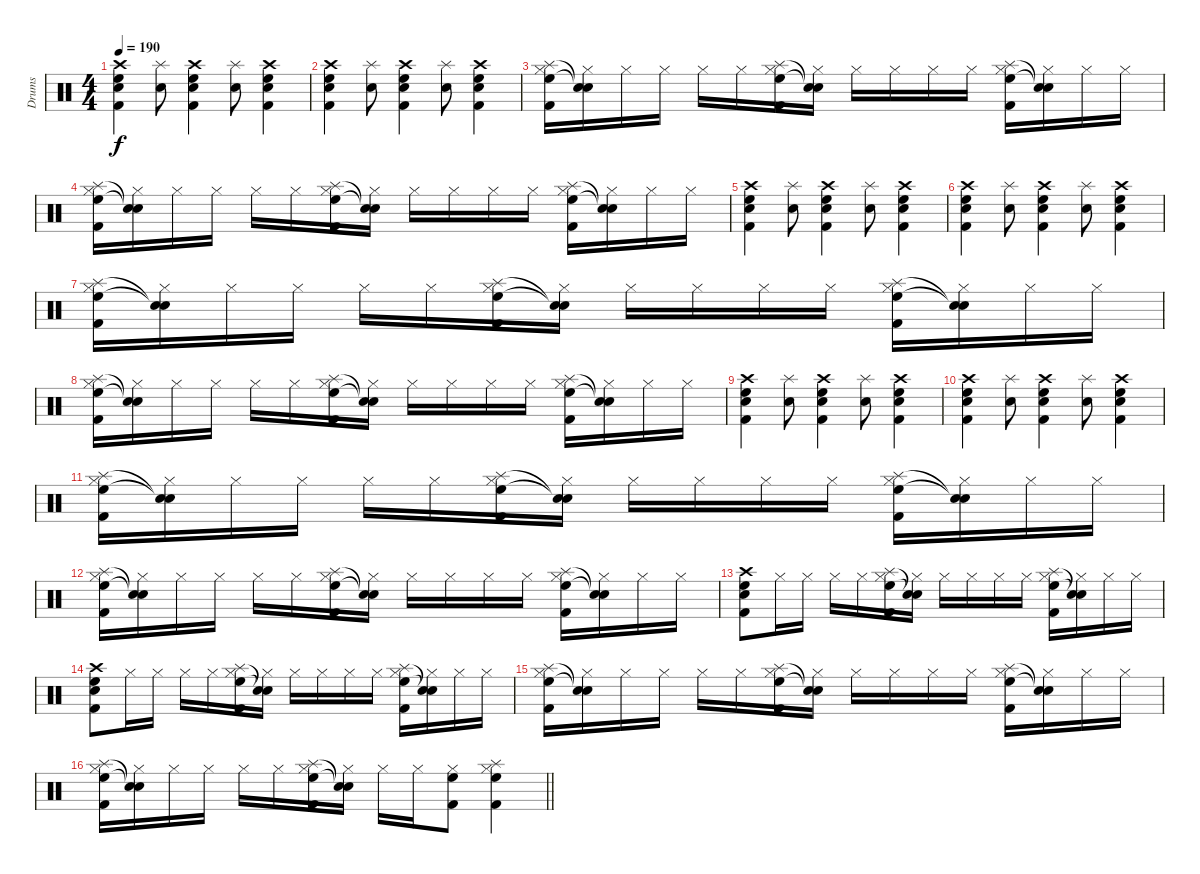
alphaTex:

\track ("Drums" "Drums") {instrument percussion}
\staff {score}
\articulation defaults
\ts (4 4)
\tempo 190
\clef neutral
\ks c
("Crash high (hit)" "High Floor Tom (hit)" "Snare (hit) 2" "Kick (hit) 2").4{dy f} ("Splash (hit)" "Electric Snare (hit)").8 ("Crash high (hit)" "High Floor Tom (hit)" "Snare (hit) 2" "Kick (hit) 2").4 ("Splash (hit)" "Electric Snare (hit)").8 ("Crash high (hit)" "High Floor Tom (hit)" "Snare (hit) 2" "Kick (hit) 2").4 |
("Crash high (hit)" "High Floor Tom (hit)" "Snare (hit) 2" "Kick (hit) 2").4 ("Splash (hit)" "Electric Snare (hit)").8 ("Crash high (hit)" "High Floor Tom (hit)" "Snare (hit) 2" "Kick (hit) 2").4 ("Splash (hit)" "Electric Snare (hit)").8 ("Crash high (hit)" "High Floor Tom (hit)" "Snare (hit) 2" "Kick (hit) 2").4 |
("Hi-Hat (closed)" "Splash (hit)" "High Floor Tom (hit)" "Kick (hit) 2").16 ("Hi-Hat (closed)" "Snare (hit)"{t} "Snare (hit)"{t}).16 "Hi-Hat (closed)".16 "Hi-Hat (closed)".16 "Hi-Hat (closed)".16 "Hi-Hat (closed)".16 ("Hi-Hat (closed)" "Splash (hit)" "High Floor Tom (hit)" "Kick (hit) 2").16 ("Hi-Hat (closed)" "Snare (hit)"{t} "Snare (hit)"{t}).16 "Hi-Hat (closed)".16 "Hi-Hat (closed)".16 "Hi-Hat (closed)".16 "Hi-Hat (closed)".16 ("Hi-Hat (closed)" "Splash (hit)" "High Floor Tom (hit)" "Kick (hit) 2").16 ("Hi-Hat (closed)" "Snare (hit)"{t} "Snare (hit)"{t}).16 "Hi-Hat (closed)".16 "Hi-Hat (closed)".16 |
("Hi-Hat (closed)" "Splash (hit)" "High Floor Tom (hit)" "Kick (hit) 2").16 ("Hi-Hat (closed)" "Snare (hit)"{t} "Snare (hit)"{t}).16 "Hi-Hat (closed)".16 "Hi-Hat (closed)".16 "Hi-Hat (closed)".16 "Hi-Hat (closed)".16 ("Hi-Hat (closed)" "Splash (hit)" "High Floor Tom (hit)" "Kick (hit) 2").16 ("Hi-Hat (closed)" "Snare (hit)"{t} "Snare (hit)"{t}).16 "Hi-Hat (closed)".16 "Hi-Hat (closed)".16 "Hi-Hat (closed)".16 "Hi-Hat (closed)".16 ("Hi-Hat (closed)" "Splash (hit)" "High Floor Tom (hit)" "Kick (hit) 2").16 ("Hi-Hat (closed)" "Snare (hit)"{t} "Snare (hit)"{t}).16 "Hi-Hat (closed)".16 "Hi-Hat (closed)".16 |
("Crash high (hit)" "High Floor Tom (hit)" "Snare (hit) 2" "Kick (hit) 2").4 ("Splash (hit)" "Electric Snare (hit)").8 ("Crash high (hit)" "High Floor Tom (hit)" "Snare (hit) 2" "Kick (hit) 2").4 ("Splash (hit)" "Electric Snare (hit)").8 ("Crash high (hit)" "High Floor Tom (hit)" "Snare (hit) 2" "Kick (hit) 2").4 |
("Crash high (hit)" "High Floor Tom (hit)" "Snare (hit) 2" "Kick (hit) 2").4 ("Splash (hit)" "Electric Snare (hit)").8 ("Crash high (hit)" "High Floor Tom (hit)" "Snare (hit) 2" "Kick (hit) 2").4 ("Splash (hit)" "Electric Snare (hit)").8 ("Crash high (hit)" "High Floor Tom (hit)" "Snare (hit) 2" "Kick (hit) 2").4 |
("Hi-Hat (closed)" "Splash (hit)" "High Floor Tom (hit)" "Kick (hit) 2").16 ("Hi-Hat (closed)" "Snare (hit)"{t} "Snare (hit)"{t}).16 "Hi-Hat (closed)".16 "Hi-Hat (closed)".16 "Hi-Hat (closed)".16 "Hi-Hat (closed)".16 ("Hi-Hat (closed)" "Splash (hit)" "High Floor Tom (hit)" "Kick (hit) 2").16 ("Hi-Hat (closed)" "Snare (hit)"{t} "Snare (hit)"{t}).16 "Hi-Hat (closed)".16 "Hi-Hat (closed)".16 "Hi-Hat (closed)".16 "Hi-Hat (closed)".16 ("Hi-Hat (closed)" "Splash (hit)" "High Floor Tom (hit)" "Kick (hit) 2").16 ("Hi-Hat (closed)" "Snare (hit)"{t} "Snare (hit)"{t}).16 "Hi-Hat (closed)".16 "Hi-Hat (closed)".16 |
("Hi-Hat (closed)" "Splash (hit)" "High Floor Tom (hit)" "Kick (hit) 2").16 ("Hi-Hat (closed)" "Snare (hit)"{t} "Snare (hit)"{t}).16 "Hi-Hat (closed)".16 "Hi-Hat (closed)".16 "Hi-Hat (closed)".16 "Hi-Hat (closed)".16 ("Hi-Hat (closed)" "Splash (hit)" "High Floor Tom (hit)" "Kick (hit) 2").16 ("Hi-Hat (closed)" "Snare (hit)"{t} "Snare (hit)"{t}).16 "Hi-Hat (closed)".16 "Hi-Hat (closed)".16 "Hi-Hat (closed)".16 "Hi-Hat (closed)".16 ("Hi-Hat (closed)" "Splash (hit)" "High Floor Tom (hit)" "Kick (hit) 2").16 ("Hi-Hat (closed)" "Snare (hit)"{t} "Snare (hit)"{t}).16 "Hi-Hat (closed)".16 "Hi-Hat (closed)".16 |
("Crash high (hit)" "High Floor Tom (hit)" "Snare (hit) 2" "Kick (hit) 2").4 ("Splash (hit)" "Electric Snare (hit)").8 ("Crash high (hit)" "High Floor Tom (hit)" "Snare (hit) 2" "Kick (hit) 2").4 ("Splash (hit)" "Electric Snare (hit)").8 ("Crash high (hit)" "High Floor Tom (hit)" "Snare (hit) 2" "Kick (hit) 2").4 |
("Crash high (hit)" "High Floor Tom (hit)" "Snare (hit) 2" "Kick (hit) 2").4 ("Splash (hit)" "Electric Snare (hit)").8 ("Crash high (hit)" "High Floor Tom (hit)" "Snare (hit) 2" "Kick (hit) 2").4 ("Splash (hit)" "Electric Snare (hit)").8 ("Crash high (hit)" "High Floor Tom (hit)" "Snare (hit) 2" "Kick (hit) 2").4 |
("Hi-Hat (closed)" "Splash (hit)" "High Floor Tom (hit)" "Kick (hit) 2").16 ("Hi-Hat (closed)" "Snare (hit)"{t} "Snare (hit)"{t}).16 "Hi-Hat (closed)".16 "Hi-Hat (closed)".16 "Hi-Hat (closed)".16 "Hi-Hat (closed)".16 ("Hi-Hat (closed)" "Splash (hit)" "High Floor Tom (hit)" "Kick (hit) 2").16 ("Hi-Hat (closed)" "Snare (hit)"{t} "Snare (hit)"{t}).16 "Hi-Hat (closed)".16 "Hi-Hat (closed)".16 "Hi-Hat (closed)".16 "Hi-Hat (closed)".16 ("Hi-Hat (closed)" "Splash (hit)" "High Floor Tom (hit)" "Kick (hit) 2").16 ("Hi-Hat (closed)" "Snare (hit)"{t} "Snare (hit)"{t}).16 "Hi-Hat (closed)".16 "Hi-Hat (closed)".16 |
("Hi-Hat (closed)" "Splash (hit)" "High Floor Tom (hit)" "Kick (hit) 2").16 ("Hi-Hat (closed)" "Snare (hit)"{t} "Snare (hit)"{t}).16 "Hi-Hat (closed)".16 "Hi-Hat (closed)".16 "Hi-Hat (closed)".16 "Hi-Hat (closed)".16 ("Hi-Hat (closed)" "Splash (hit)" "High Floor Tom (hit)" "Kick (hit) 2").16 ("Hi-Hat (closed)" "Snare (hit)"{t} "Snare (hit)"{t}).16 "Hi-Hat (closed)".16 "Hi-Hat (closed)".16 "Hi-Hat (closed)".16 "Hi-Hat (closed)".16 ("Hi-Hat (closed)" "Splash (hit)" "High Floor Tom (hit)" "Kick (hit) 2").16 ("Hi-Hat (closed)" "Snare (hit)"{t} "Snare (hit)"{t}).16 "Hi-Hat (closed)".16 "Hi-Hat (closed)".16 |
("Crash high (hit)" "High Floor Tom (hit)" "Snare (hit) 2" "Kick (hit) 2").8 "Hi-Hat (closed)".16 "Hi-Hat (closed)".16 "Hi-Hat (closed)".16 "Hi-Hat (closed)".16 ("Hi-Hat (closed)" "Splash (hit)" "High Floor Tom (hit)" "Kick (hit) 2").16 ("Hi-Hat (closed)" "Snare (hit)"{t} "Snare (hit)"{t}).16 "Hi-Hat (closed)".16 "Hi-Hat (closed)".16 "Hi-Hat (closed)".16 "Hi-Hat (closed)".16 ("Hi-Hat (closed)" "Splash (hit)" "High Floor Tom (hit)" "Kick (hit) 2").16 ("Hi-Hat (closed)" "Snare (hit)"{t} "Snare (hit)"{t}).16 "Hi-Hat (closed)".16 "Hi-Hat (closed)".16 |
("Crash high (hit)" "High Floor Tom (hit)" "Snare (hit) 2" "Kick (hit) 2").8 "Hi-Hat (closed)".16 "Hi-Hat (closed)".16 "Hi-Hat (closed)".16 "Hi-Hat (closed)".16 ("Hi-Hat (closed)" "Splash (hit)" "High Floor Tom (hit)" "Kick (hit) 2").16 ("Hi-Hat (closed)" "Snare (hit)"{t} "Snare (hit)"{t}).16 "Hi-Hat (closed)".16 "Hi-Hat (closed)".16 "Hi-Hat (closed)".16 "Hi-Hat (closed)".16 ("Hi-Hat (closed)" "Splash (hit)" "High Floor Tom (hit)" "Kick (hit) 2").16 ("Hi-Hat (closed)" "Snare (hit)"{t} "Snare (hit)"{t}).16 "Hi-Hat (closed)".16 "Hi-Hat (closed)".16 |
("Hi-Hat (closed)" "Splash (hit)" "High Floor Tom (hit)" "Kick (hit) 2").16 ("Hi-Hat (closed)" "Snare (hit)"{t} "Snare (hit)"{t}).16 "Hi-Hat (closed)".16 "Hi-Hat (closed)".16 "Hi-Hat (closed)".16 "Hi-Hat (closed)".16 ("Hi-Hat (closed)" "Splash (hit)" "High Floor Tom (hit)" "Kick (hit) 2").16 ("Hi-Hat (closed)" "Snare (hit)"{t} "Snare (hit)"{t}).16 "Hi-Hat (closed)".16 "Hi-Hat (closed)".16 "Hi-Hat (closed)".16 "Hi-Hat (closed)".16 ("Hi-Hat (closed)" "Splash (hit)" "High Floor Tom (hit)" "Kick (hit) 2").16 ("Hi-Hat (closed)" "Snare (hit)"{t} "Snare (hit)"{t}).16 "Hi-Hat (closed)".16 "Hi-Hat (closed)".16 |
\barLineRight lightlight
("Hi-Hat (closed)" "Splash (hit)" "High Floor Tom (hit)" "Kick (hit) 2").16 ("Hi-Hat (closed)" "Snare (hit)"{t} "Snare (hit)"{t}).16 "Hi-Hat (closed)".16 "Hi-Hat (closed)".16 "Hi-Hat (closed)".16 "Hi-Hat (closed)".16 ("Hi-Hat (closed)" "Splash (hit)" "High Floor Tom (hit)" "Kick (hit) 2").16 ("Hi-Hat (closed)" "Snare (hit)"{t} "Snare (hit)"{t}).16 "Hi-Hat (closed)".16 "Hi-Hat (closed)".16 ("Hi-Hat (closed)" "High Floor Tom (hit)" "Kick (hit) 2").8 ("Hi-Hat (closed)" "Splash (hit)" "High Floor Tom (hit)" "Kick (hit) 2").4
